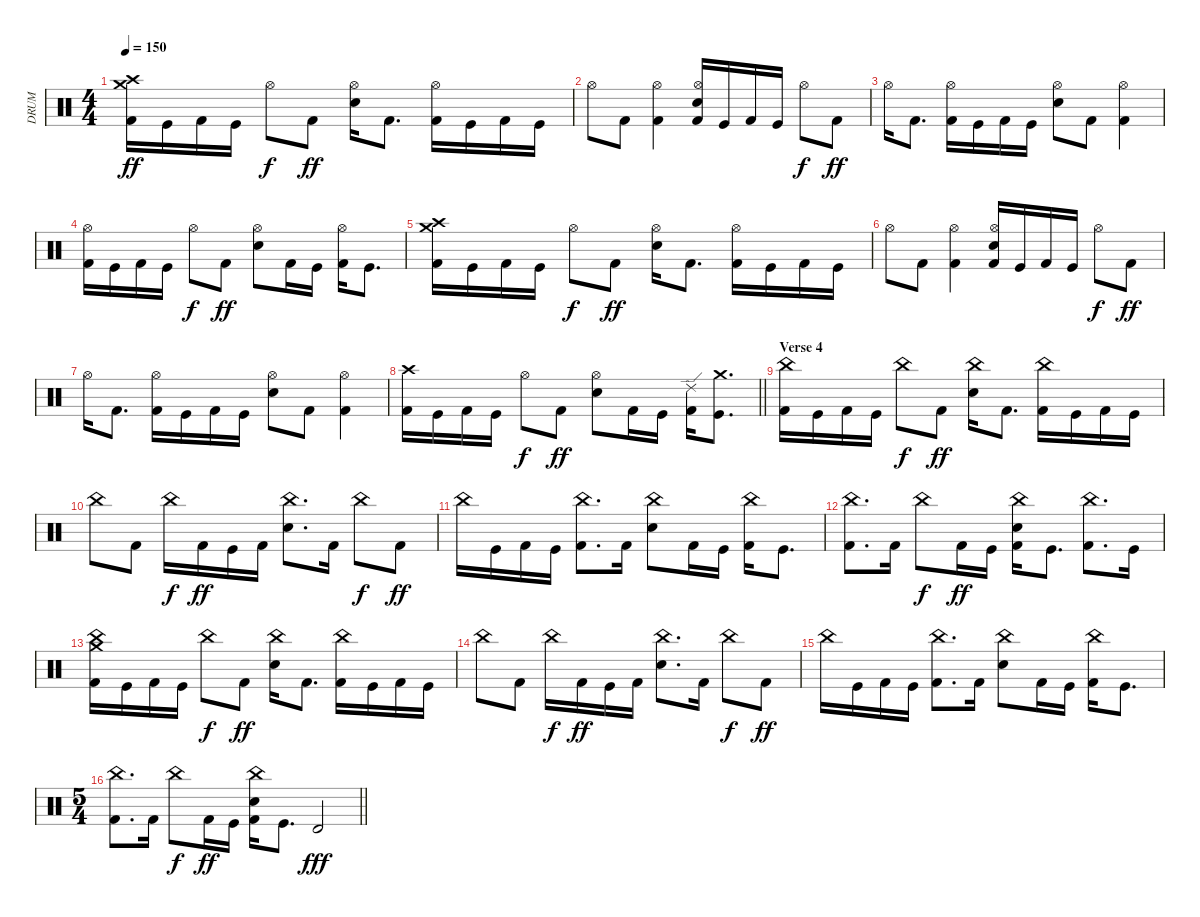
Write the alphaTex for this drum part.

\track ("DRUM" "DRUM") {instrument percussion}
\staff {score}
\articulation defaults
\ts (4 4)
\tempo 150
\clef neutral
\ks c
("Crash high (hit)" "Crash medium (hit)" "Kick (hit) 2").16{dy ff} "Kick (hit)".16 "Kick (hit) 2".16 "Kick (hit)".16 "Hi-Hat (open)".8{dy f} "Kick (hit) 2".8{dy ff} ("Hi-Hat (open)" "Snare (hit) 2").16 "Kick (hit) 2".8{d} ("Hi-Hat (open)" "Kick (hit) 2").16 "Kick (hit)".16 "Kick (hit) 2".16 "Kick (hit)".16 |
"Hi-Hat (open)".8 "Kick (hit) 2".8 ("Hi-Hat (open)" "Kick (hit) 2").4 ("Hi-Hat (open)" "Snare (hit) 2" "Kick (hit) 2").16 "Kick (hit)".16 "Kick (hit) 2".16 "Kick (hit)".16 "Hi-Hat (open)".8{dy f} "Kick (hit) 2".8{dy ff} |
"Hi-Hat (open)".16 "Kick (hit) 2".8{d} ("Hi-Hat (open)" "Kick (hit) 2").16 "Kick (hit)".16 "Kick (hit) 2".16 "Kick (hit)".16 ("Hi-Hat (open)" "Snare (hit) 2").8 "Kick (hit) 2".8 ("Hi-Hat (open)" "Kick (hit) 2").4 |
("Hi-Hat (open)" "Kick (hit) 2").16 "Kick (hit)".16 "Kick (hit) 2".16 "Kick (hit)".16 "Hi-Hat (open)".8{dy f} "Kick (hit) 2".8{dy ff} ("Hi-Hat (open)" "Snare (hit) 2").8 "Kick (hit) 2".16 "Kick (hit)".16 ("Hi-Hat (open)" "Kick (hit) 2").16 "Kick (hit)".8{d} |
("Crash high (hit)" "Crash medium (hit)" "Kick (hit) 2").16 "Kick (hit)".16 "Kick (hit) 2".16 "Kick (hit)".16 "Hi-Hat (open)".8{dy f} "Kick (hit) 2".8{dy ff} ("Hi-Hat (open)" "Snare (hit) 2").16 "Kick (hit) 2".8{d} ("Hi-Hat (open)" "Kick (hit) 2").16 "Kick (hit)".16 "Kick (hit) 2".16 "Kick (hit)".16 |
"Hi-Hat (open)".8 "Kick (hit) 2".8 ("Hi-Hat (open)" "Kick (hit) 2").4 ("Hi-Hat (open)" "Snare (hit) 2" "Kick (hit) 2").16 "Kick (hit)".16 "Kick (hit) 2".16 "Kick (hit)".16 "Hi-Hat (open)".8{dy f} "Kick (hit) 2".8{dy ff} |
"Hi-Hat (open)".16 "Kick (hit) 2".8{d} ("Hi-Hat (open)" "Kick (hit) 2").16 "Kick (hit)".16 "Kick (hit) 2".16 "Kick (hit)".16 ("Hi-Hat (open)" "Snare (hit) 2").8 "Kick (hit) 2".8 ("Hi-Hat (open)" "Kick (hit) 2").4 |
\barLineRight lightlight
("Crash high (hit)" "Kick (hit) 2").16 "Kick (hit)".16 "Kick (hit) 2".16 "Kick (hit)".16 "Hi-Hat (open)".8{dy f} "Kick (hit) 2".8{dy ff} ("Hi-Hat (open)" "Snare (hit) 2").8 "Kick (hit) 2".16 "Kick (hit)".16 ("Ride (edge) 2" "Kick (hit) 2").16 ("Crash medium (hit)" "Kick (hit)").8{d} |
\section ("" "Verse 4")
("China (hit)" "Kick (hit) 2").16 "Kick (hit)".16 "Kick (hit) 2".16 "Kick (hit)".16 "China (hit)".8{dy f} "Kick (hit) 2".8{dy ff} ("China (hit)" "Snare (hit) 2").16 "Kick (hit) 2".8{d} ("China (hit)" "Kick (hit) 2").16 "Kick (hit)".16 "Kick (hit) 2".16 "Kick (hit)".16 |
"China (hit)".8 "Kick (hit) 2".8 "China (hit)".16{dy f} "Kick (hit) 2".16{dy ff} "Kick (hit)".16 "Kick (hit) 2".16 ("China (hit)" "Snare (hit) 2").8{d} "Kick (hit) 2".16 "China (hit)".8{dy f} "Kick (hit) 2".8{dy ff} |
"China (hit)".16 "Kick (hit)".16 "Kick (hit) 2".16 "Kick (hit)".16 ("China (hit)" "Kick (hit) 2").8{d} "Kick (hit) 2".16 ("China (hit)" "Snare (hit) 2").8 "Kick (hit) 2".16 "Kick (hit)".16 ("China (hit)" "Kick (hit) 2").16 "Kick (hit)".8{d} |
("China (hit)" "Kick (hit) 2").8{d} "Kick (hit) 2".16 "China (hit)".8{dy f} "Kick (hit) 2".16{dy ff} "Kick (hit)".16 ("China (hit)" "Snare (hit) 2" "Kick (hit) 2").16 "Kick (hit)".8{d} ("China (hit)" "Kick (hit) 2").8{d} "Kick (hit)".16 |
("China (hit)" "Crash medium (hit)" "Kick (hit) 2").16 "Kick (hit)".16 "Kick (hit) 2".16 "Kick (hit)".16 "China (hit)".8{dy f} "Kick (hit) 2".8{dy ff} ("China (hit)" "Snare (hit) 2").16 "Kick (hit) 2".8{d} ("China (hit)" "Kick (hit) 2").16 "Kick (hit)".16 "Kick (hit) 2".16 "Kick (hit)".16 |
"China (hit)".8 "Kick (hit) 2".8 "China (hit)".16{dy f} "Kick (hit) 2".16{dy ff} "Kick (hit)".16 "Kick (hit) 2".16 ("China (hit)" "Snare (hit) 2").8{d} "Kick (hit) 2".16 "China (hit)".8{dy f} "Kick (hit) 2".8{dy ff} |
"China (hit)".16 "Kick (hit)".16 "Kick (hit) 2".16 "Kick (hit)".16 ("China (hit)" "Kick (hit) 2").8{d} "Kick (hit) 2".16 ("China (hit)" "Snare (hit) 2").8 "Kick (hit) 2".16 "Kick (hit)".16 ("China (hit)" "Kick (hit) 2").16 "Kick (hit)".8{d} |
\ts (5 4)
\barLineRight lightlight
("China (hit)" "Kick (hit) 2").8{d} "Kick (hit) 2".16 "China (hit)".8{dy f} "Kick (hit) 2".16{dy ff} "Kick (hit)".16 ("China (hit)" "Snare (hit) 2" "Kick (hit) 2").16 "Kick (hit)".8{d} "Timbale high (hit)".2{dy fff}
